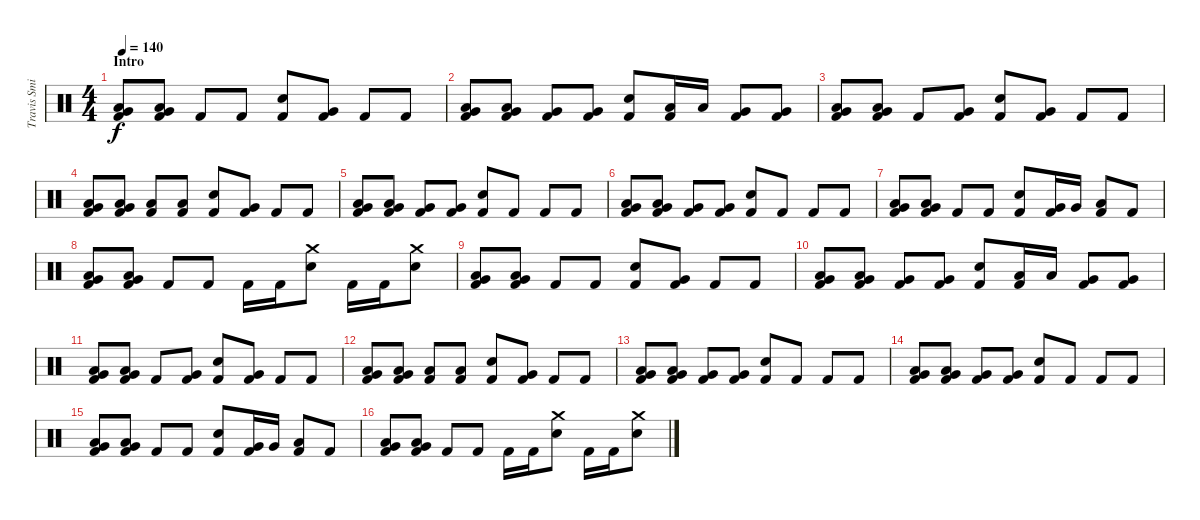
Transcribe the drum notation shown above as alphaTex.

\track ("Travis Smith" "Travis Smi") {instrument percussion}
\staff {score}
\articulation defaults
\ts (4 4)
\section ("" "Intro")
\tempo 140
\clef neutral
\ks c
("Very Low Tom (hit)" "Low Floor Tom (hit)" "Kick (hit) 2").8{dy f} ("Very Low Tom (hit)" "Low Floor Tom (hit)" "Kick (hit) 2").8 "Kick (hit) 2".8 "Kick (hit) 2".8 ("Electric Snare (hit)" "Kick (hit) 2").8 ("Very Low Tom (hit)" "Kick (hit) 2").8 "Kick (hit) 2".8 "Kick (hit) 2".8 |
("Very Low Tom (hit)" "Low Floor Tom (hit)" "Kick (hit) 2").8 ("Very Low Tom (hit)" "Low Floor Tom (hit)" "Kick (hit) 2").8 ("Very Low Tom (hit)" "Kick (hit) 2").8 ("Very Low Tom (hit)" "Kick (hit) 2").8 ("Electric Snare (hit)" "Kick (hit) 2").8 ("Low Tom (hit)" "Kick (hit) 2").16 "Low Tom (hit)".16 ("Very Low Tom (hit)" "Kick (hit) 2").8 ("Very Low Tom (hit)" "Kick (hit) 2").8 |
("Very Low Tom (hit)" "Low Floor Tom (hit)" "Kick (hit) 2").8 ("Very Low Tom (hit)" "Low Floor Tom (hit)" "Kick (hit) 2").8 "Kick (hit) 2".8 ("Very Low Tom (hit)" "Kick (hit) 2").8 ("Electric Snare (hit)" "Kick (hit) 2").8 ("Very Low Tom (hit)" "Kick (hit) 2").8 "Kick (hit) 2".8 "Kick (hit) 2".8 |
("Very Low Tom (hit)" "Low Floor Tom (hit)" "Kick (hit) 2").8 ("Very Low Tom (hit)" "Low Floor Tom (hit)" "Kick (hit) 2").8 ("Low Tom (hit)" "Kick (hit) 2").8 ("Low Tom (hit)" "Kick (hit) 2").8 ("Electric Snare (hit)" "Kick (hit) 2").8 ("Very Low Tom (hit)" "Kick (hit) 2").8 "Kick (hit) 2".8 "Kick (hit) 2".8 |
("Very Low Tom (hit)" "Low Floor Tom (hit)" "Kick (hit) 2").8 ("Very Low Tom (hit)" "Low Floor Tom (hit)" "Kick (hit) 2").8 ("Very Low Tom (hit)" "Kick (hit) 2").8 ("Very Low Tom (hit)" "Kick (hit) 2").8 ("Electric Snare (hit)" "Kick (hit) 2").8 "Kick (hit) 2".8 "Kick (hit) 2".8 "Kick (hit) 2".8 |
("Very Low Tom (hit)" "Low Floor Tom (hit)" "Kick (hit) 2").8 ("Very Low Tom (hit)" "Low Floor Tom (hit)" "Kick (hit) 2").8 ("Very Low Tom (hit)" "Kick (hit) 2").8 ("Very Low Tom (hit)" "Kick (hit) 2").8 ("Electric Snare (hit)" "Kick (hit) 2").8 "Kick (hit) 2".8 "Kick (hit) 2".8 "Kick (hit) 2".8 |
("Very Low Tom (hit)" "Low Floor Tom (hit)" "Kick (hit) 2").8 ("Very Low Tom (hit)" "Low Floor Tom (hit)" "Kick (hit) 2").8 "Kick (hit) 2".8 "Kick (hit) 2".8 ("Electric Snare (hit)" "Kick (hit) 2").8 ("Very Low Tom (hit)" "Kick (hit) 2").16 "Very Low Tom (hit)".16 ("Low Floor Tom (hit)" "Kick (hit) 2").8 "Kick (hit) 2".8 |
("Very Low Tom (hit)" "Low Floor Tom (hit)" "Kick (hit) 2").8 ("Very Low Tom (hit)" "Low Floor Tom (hit)" "Kick (hit) 2").8 "Kick (hit) 2".8 "Kick (hit) 2".8 "Kick (hit) 2".16 "Kick (hit) 2".16 ("Crash medium (hit)" "Electric Snare (hit)").8 "Kick (hit) 2".16 "Kick (hit) 2".16 ("Crash medium (hit)" "Electric Snare (hit)").8 |
("Very Low Tom (hit)" "Low Floor Tom (hit)" "Kick (hit) 2").8 ("Very Low Tom (hit)" "Low Floor Tom (hit)" "Kick (hit) 2").8 "Kick (hit) 2".8 "Kick (hit) 2".8 ("Electric Snare (hit)" "Kick (hit) 2").8 ("Very Low Tom (hit)" "Kick (hit) 2").8 "Kick (hit) 2".8 "Kick (hit) 2".8 |
("Very Low Tom (hit)" "Low Floor Tom (hit)" "Kick (hit) 2").8 ("Very Low Tom (hit)" "Low Floor Tom (hit)" "Kick (hit) 2").8 ("Very Low Tom (hit)" "Kick (hit) 2").8 ("Very Low Tom (hit)" "Kick (hit) 2").8 ("Electric Snare (hit)" "Kick (hit) 2").8 ("Low Tom (hit)" "Kick (hit) 2").16 "Low Tom (hit)".16 ("Very Low Tom (hit)" "Kick (hit) 2").8 ("Very Low Tom (hit)" "Kick (hit) 2").8 |
("Very Low Tom (hit)" "Low Floor Tom (hit)" "Kick (hit) 2").8 ("Very Low Tom (hit)" "Low Floor Tom (hit)" "Kick (hit) 2").8 "Kick (hit) 2".8 ("Very Low Tom (hit)" "Kick (hit) 2").8 ("Electric Snare (hit)" "Kick (hit) 2").8 ("Very Low Tom (hit)" "Kick (hit) 2").8 "Kick (hit) 2".8 "Kick (hit) 2".8 |
("Very Low Tom (hit)" "Low Floor Tom (hit)" "Kick (hit) 2").8 ("Very Low Tom (hit)" "Low Floor Tom (hit)" "Kick (hit) 2").8 ("Low Tom (hit)" "Kick (hit) 2").8 ("Low Tom (hit)" "Kick (hit) 2").8 ("Electric Snare (hit)" "Kick (hit) 2").8 ("Very Low Tom (hit)" "Kick (hit) 2").8 "Kick (hit) 2".8 "Kick (hit) 2".8 |
("Very Low Tom (hit)" "Low Floor Tom (hit)" "Kick (hit) 2").8 ("Very Low Tom (hit)" "Low Floor Tom (hit)" "Kick (hit) 2").8 ("Very Low Tom (hit)" "Kick (hit) 2").8 ("Very Low Tom (hit)" "Kick (hit) 2").8 ("Electric Snare (hit)" "Kick (hit) 2").8 "Kick (hit) 2".8 "Kick (hit) 2".8 "Kick (hit) 2".8 |
("Very Low Tom (hit)" "Low Floor Tom (hit)" "Kick (hit) 2").8 ("Very Low Tom (hit)" "Low Floor Tom (hit)" "Kick (hit) 2").8 ("Very Low Tom (hit)" "Kick (hit) 2").8 ("Very Low Tom (hit)" "Kick (hit) 2").8 ("Electric Snare (hit)" "Kick (hit) 2").8 "Kick (hit) 2".8 "Kick (hit) 2".8 "Kick (hit) 2".8 |
("Very Low Tom (hit)" "Low Floor Tom (hit)" "Kick (hit) 2").8 ("Very Low Tom (hit)" "Low Floor Tom (hit)" "Kick (hit) 2").8 "Kick (hit) 2".8 "Kick (hit) 2".8 ("Electric Snare (hit)" "Kick (hit) 2").8 ("Very Low Tom (hit)" "Kick (hit) 2").16 "Very Low Tom (hit)".16 ("Low Floor Tom (hit)" "Kick (hit) 2").8 "Kick (hit) 2".8 |
("Very Low Tom (hit)" "Low Floor Tom (hit)" "Kick (hit) 2").8 ("Very Low Tom (hit)" "Low Floor Tom (hit)" "Kick (hit) 2").8 "Kick (hit) 2".8 "Kick (hit) 2".8 "Kick (hit) 2".16 "Kick (hit) 2".16 ("Crash medium (hit)" "Electric Snare (hit)").8 "Kick (hit) 2".16 "Kick (hit) 2".16 ("Crash medium (hit)" "Electric Snare (hit)").8
